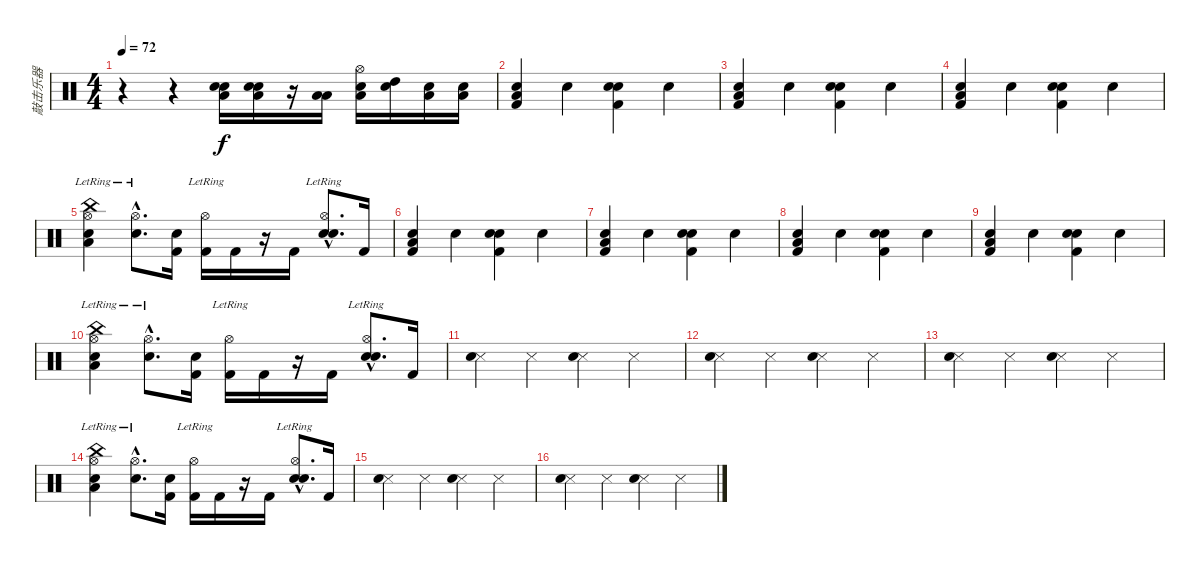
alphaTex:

\track ("敲击乐器" "敲击乐器") {instrument percussion}
\staff {score}
\articulation defaults
\ts (4 4)
\tempo 72
\clef neutral
\ks c
r.4{dy f} r.4 ("Snare (hit)" "Electric Snare (hit)" "Low Floor Tom (hit)").16 ("Snare (hit)" "Electric Snare (hit)" "Low Floor Tom (hit)").16 r.16 ("Low Floor Tom (hit)" "Low Tom (hit)").16 ("Snare (hit)" "Low Floor Tom (hit)" "Hi-Hat (open)").16 ("Snare (hit)" "High Tom (hit)").16 ("Low Tom (hit)" "Snare (hit)").16 ("Low Tom (hit)" "Snare (hit)").16 |
("Snare (hit) 2" "Kick (hit) 2" "Low Floor Tom (hit)").4 "Electric Snare (hit)".4 ("Snare (hit) 2" "Kick (hit) 2" "Hand Clap (hit)").4 "Electric Snare (hit)".4 |
("Snare (hit) 2" "Kick (hit) 2" "Low Floor Tom (hit)").4 "Electric Snare (hit)".4 ("Snare (hit) 2" "Kick (hit) 2" "Hand Clap (hit)").4 "Electric Snare (hit)".4 |
("Snare (hit) 2" "Kick (hit) 2" "Low Floor Tom (hit)").4 "Electric Snare (hit)".4 ("Snare (hit) 2" "Kick (hit) 2" "Hand Clap (hit)").4 "Electric Snare (hit)".4 |
("China (hit)" "Snare (hit) 2" "Low Floor Tom (hit)" "Hi-Hat (open)"{lr}).4 ("Electric Snare (hit)"{hac} "Hi-Hat (open)"{hac lr}).8{d} ("Kick (hit) 2" "Snare (hit) 2").16 ("Kick (hit) 2" "Hi-Hat (open)"{lr}).16 "Kick (hit) 2".16 r.16 "Kick (hit) 2".16 ("Electric Snare (hit)"{hac} "Hand Clap (hit)"{hac} "Hi-Hat (open)"{hac lr}).8{d} "Kick (hit) 2".16 |
("Snare (hit) 2" "Kick (hit) 2" "Low Floor Tom (hit)").4 "Electric Snare (hit)".4 ("Snare (hit) 2" "Kick (hit) 2" "Hand Clap (hit)").4 "Electric Snare (hit)".4 |
("Snare (hit) 2" "Kick (hit) 2" "Low Floor Tom (hit)").4 "Electric Snare (hit)".4 ("Snare (hit) 2" "Kick (hit) 2" "Hand Clap (hit)").4 "Electric Snare (hit)".4 |
("Snare (hit) 2" "Kick (hit) 2" "Low Floor Tom (hit)").4 "Electric Snare (hit)".4 ("Snare (hit) 2" "Kick (hit) 2" "Hand Clap (hit)").4 "Electric Snare (hit)".4 |
("Snare (hit) 2" "Kick (hit) 2" "Low Floor Tom (hit)").4 "Electric Snare (hit)".4 ("Snare (hit) 2" "Kick (hit) 2" "Hand Clap (hit)").4 "Electric Snare (hit)".4 |
("China (hit)" "Snare (hit) 2" "Low Floor Tom (hit)" "Hi-Hat (open)"{lr}).4 ("Electric Snare (hit)"{hac} "Hi-Hat (open)"{hac lr}).8{d} ("Kick (hit) 2" "Snare (hit) 2").16 ("Kick (hit) 2" "Hi-Hat (open)"{lr}).16 "Kick (hit) 2".16 r.16 "Kick (hit) 2".16 ("Electric Snare (hit)"{hac} "Hand Clap (hit)"{hac} "Hi-Hat (open)"{hac lr}).8{d} "Kick (hit) 2".16 |
("Snare (side stick) 3" "Electric Snare (hit)").4 "Snare (side stick) 3".4 ("Snare (side stick) 3" "Hand Clap (hit)").4 "Snare (side stick) 3".4 |
("Snare (side stick) 3" "Electric Snare (hit)").4 "Snare (side stick) 3".4 ("Snare (side stick) 3" "Hand Clap (hit)").4 "Snare (side stick) 3".4 |
("Snare (side stick) 3" "Electric Snare (hit)").4 "Snare (side stick) 3".4 ("Snare (side stick) 3" "Hand Clap (hit)").4 "Snare (side stick) 3".4 |
("China (hit)" "Snare (hit) 2" "Low Floor Tom (hit)" "Hi-Hat (open)"{lr}).4 ("Electric Snare (hit)"{hac} "Hi-Hat (open)"{hac lr}).8{d} ("Kick (hit) 2" "Snare (hit) 2").16 ("Kick (hit) 2" "Hi-Hat (open)"{lr}).16 "Kick (hit) 2".16 r.16 "Kick (hit) 2".16 ("Electric Snare (hit)"{hac} "Hand Clap (hit)"{hac} "Hi-Hat (open)"{hac lr}).8{d} "Kick (hit) 2".16 |
("Snare (side stick) 3" "Electric Snare (hit)").4 "Snare (side stick) 3".4 ("Snare (side stick) 3" "Hand Clap (hit)").4 "Snare (side stick) 3".4 |
("Snare (side stick) 3" "Electric Snare (hit)").4 "Snare (side stick) 3".4 ("Snare (side stick) 3" "Hand Clap (hit)").4 "Snare (side stick) 3".4
